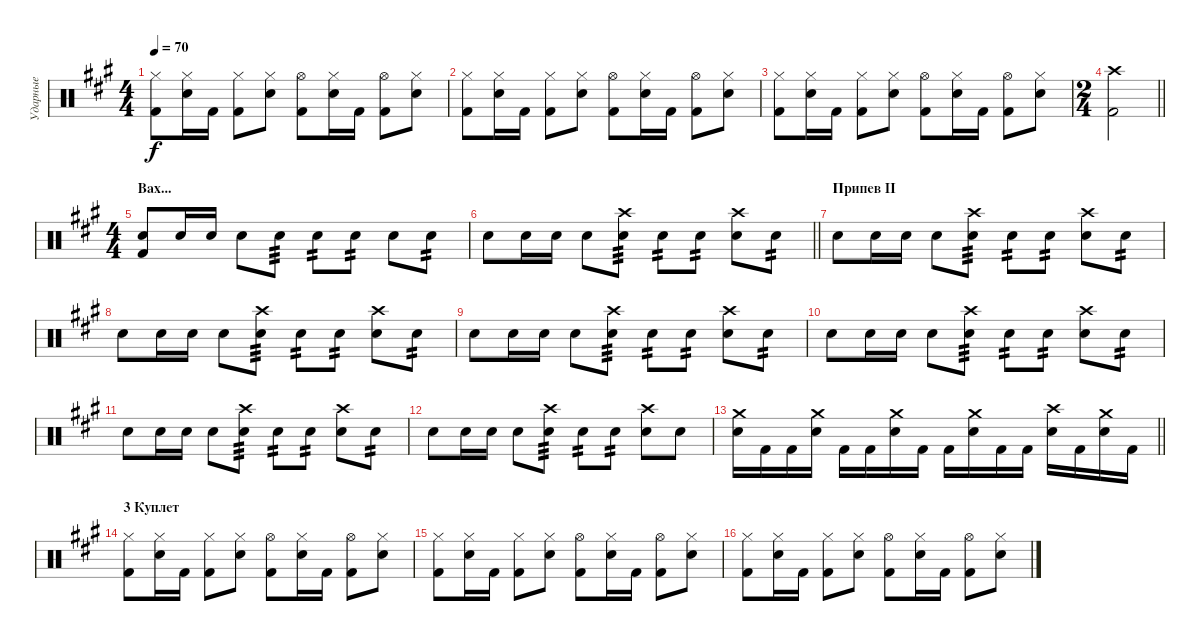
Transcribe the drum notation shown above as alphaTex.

\track ("Ударные" "Ударные") {instrument percussion}
\staff {score}
\articulation defaults
\ts (4 4)
\tempo 70
\clef neutral
\ks a
("Hi-Hat (closed)" "Kick (hit) 2").8{dy f} ("Hi-Hat (closed)" "Snare (hit) 2").16 "Kick (hit) 2".16 ("Hi-Hat (closed)" "Kick (hit) 2").8 ("Hi-Hat (closed)" "Snare (hit) 2").8 ("Hi-Hat (open)" "Kick (hit) 2").8 ("Hi-Hat (closed)" "Snare (hit) 2").16 "Kick (hit) 2".16 ("Hi-Hat (open)" "Kick (hit) 2").8 ("Hi-Hat (closed)" "Snare (hit) 2").8 |
("Hi-Hat (closed)" "Kick (hit) 2").8 ("Hi-Hat (closed)" "Snare (hit) 2").16 "Kick (hit) 2".16 ("Hi-Hat (closed)" "Kick (hit) 2").8 ("Hi-Hat (closed)" "Snare (hit) 2").8 ("Hi-Hat (open)" "Kick (hit) 2").8 ("Hi-Hat (closed)" "Snare (hit) 2").16 "Kick (hit) 2".16 ("Hi-Hat (open)" "Kick (hit) 2").8 ("Hi-Hat (closed)" "Snare (hit) 2").8 |
("Hi-Hat (closed)" "Kick (hit) 2").8 ("Hi-Hat (closed)" "Snare (hit) 2").16 "Kick (hit) 2".16 ("Hi-Hat (closed)" "Kick (hit) 2").8 ("Hi-Hat (closed)" "Snare (hit) 2").8 ("Hi-Hat (open)" "Kick (hit) 2").8 ("Hi-Hat (closed)" "Snare (hit) 2").16 "Kick (hit) 2".16 ("Hi-Hat (open)" "Kick (hit) 2").8 ("Hi-Hat (closed)" "Snare (hit) 2").8 |
\ts (2 4)
\barLineRight lightlight
("Crash high (hit)" "Kick (hit) 2").2 |
\ts (4 4)
\section ("" "Вах...")
("Snare (hit) 2" "Kick (hit) 2").8 "Snare (hit) 2".16{volume 9} "Snare (hit) 2".16 "Snare (hit) 2".8 "Snare (hit) 2".8{tp 3} "Snare (hit) 2".8{tp 2} "Snare (hit) 2".8{tp 2} "Snare (hit) 2".8 "Snare (hit) 2".8{tp 2} |
\barLineRight lightlight "Snare (hit) 2".8 "Snare (hit) 2".16 "Snare (hit) 2".16 "Snare (hit) 2".8
("Crash high (hit)" "Snare (hit) 2").8{tp 3} "Snare (hit) 2".8{tp 2} "Snare (hit) 2".8{tp 2} ("Crash high (hit)" "Snare (hit) 2").8 "Snare (hit) 2".8{tp 2} |
\section ("" "Припев II")
"Snare (hit) 2".8 "Snare (hit) 2".16 "Snare (hit) 2".16 "Snare (hit) 2".8 ("Crash high (hit)" "Snare (hit) 2").8{tp 3} "Snare (hit) 2".8{tp 2} "Snare (hit) 2".8{tp 2} ("Crash high (hit)" "Snare (hit) 2").8 "Snare (hit) 2".8{tp 2} |
"Snare (hit) 2".8 "Snare (hit) 2".16 "Snare (hit) 2".16 "Snare (hit) 2".8 ("Crash high (hit)" "Snare (hit) 2").8{tp 3} "Snare (hit) 2".8{tp 2} "Snare (hit) 2".8{tp 2} ("Crash high (hit)" "Snare (hit) 2").8 "Snare (hit) 2".8{tp 2} |
"Snare (hit) 2".8 "Snare (hit) 2".16 "Snare (hit) 2".16 "Snare (hit) 2".8 ("Crash high (hit)" "Snare (hit) 2").8{tp 3} "Snare (hit) 2".8{tp 2} "Snare (hit) 2".8{tp 2} ("Crash high (hit)" "Snare (hit) 2").8 "Snare (hit) 2".8{tp 2} |
"Snare (hit) 2".8 "Snare (hit) 2".16 "Snare (hit) 2".16 "Snare (hit) 2".8 ("Crash high (hit)" "Snare (hit) 2").8{tp 3} "Snare (hit) 2".8{tp 2} "Snare (hit) 2".8{tp 2} ("Crash high (hit)" "Snare (hit) 2").8 "Snare (hit) 2".8{tp 2} |
"Snare (hit) 2".8 "Snare (hit) 2".16 "Snare (hit) 2".16 "Snare (hit) 2".8 ("Crash high (hit)" "Snare (hit) 2").8{tp 3} "Snare (hit) 2".8{tp 2} "Snare (hit) 2".8{tp 2} ("Crash high (hit)" "Snare (hit) 2").8 "Snare (hit) 2".8{tp 2} |
"Snare (hit) 2".8 "Snare (hit) 2".16 "Snare (hit) 2".16 "Snare (hit) 2".8 ("Crash high (hit)" "Snare (hit) 2").8{tp 3} "Snare (hit) 2".8{tp 2} "Snare (hit) 2".8{tp 2} ("Crash high (hit)" "Snare (hit) 2").8 "Snare (hit) 2".8{volume 13} |
\barLineRight lightlight
("Snare (hit) 2" "Crash medium (hit)").16 "Kick (hit) 2".16 "Kick (hit) 2".16 ("Snare (hit) 2" "Crash medium (hit)").16 "Kick (hit) 2".16 "Kick (hit) 2".16 ("Snare (hit) 2" "Crash medium (hit)").16 "Kick (hit) 2".16 "Kick (hit) 2".16 ("Snare (hit) 2" "Crash medium (hit)").16 "Kick (hit) 2".16 "Kick (hit) 2".16 ("Snare (hit) 2" "Crash high (hit)").16 "Kick (hit) 2".16 ("Snare (hit) 2" "Crash medium (hit)").16 "Kick (hit) 2".16 |
\section ("" "3 Куплет")
("Hi-Hat (closed)" "Kick (hit) 2").8 ("Hi-Hat (closed)" "Snare (hit) 2").16 "Kick (hit) 2".16 ("Hi-Hat (closed)" "Kick (hit) 2").8 ("Hi-Hat (closed)" "Snare (hit) 2").8 ("Hi-Hat (open)" "Kick (hit) 2").8 ("Hi-Hat (closed)" "Snare (hit) 2").16 "Kick (hit) 2".16 ("Hi-Hat (open)" "Kick (hit) 2").8 ("Hi-Hat (closed)" "Snare (hit) 2").8 |
("Hi-Hat (closed)" "Kick (hit) 2").8 ("Hi-Hat (closed)" "Snare (hit) 2").16 "Kick (hit) 2".16 ("Hi-Hat (closed)" "Kick (hit) 2").8 ("Hi-Hat (closed)" "Snare (hit) 2").8 ("Hi-Hat (open)" "Kick (hit) 2").8 ("Hi-Hat (closed)" "Snare (hit) 2").16 "Kick (hit) 2".16 ("Hi-Hat (open)" "Kick (hit) 2").8 ("Hi-Hat (closed)" "Snare (hit) 2").8 |
("Hi-Hat (closed)" "Kick (hit) 2").8 ("Hi-Hat (closed)" "Snare (hit) 2").16 "Kick (hit) 2".16 ("Hi-Hat (closed)" "Kick (hit) 2").8 ("Hi-Hat (closed)" "Snare (hit) 2").8 ("Hi-Hat (open)" "Kick (hit) 2").8 ("Hi-Hat (closed)" "Snare (hit) 2").16 "Kick (hit) 2".16 ("Hi-Hat (open)" "Kick (hit) 2").8 ("Hi-Hat (closed)" "Snare (hit) 2").8
